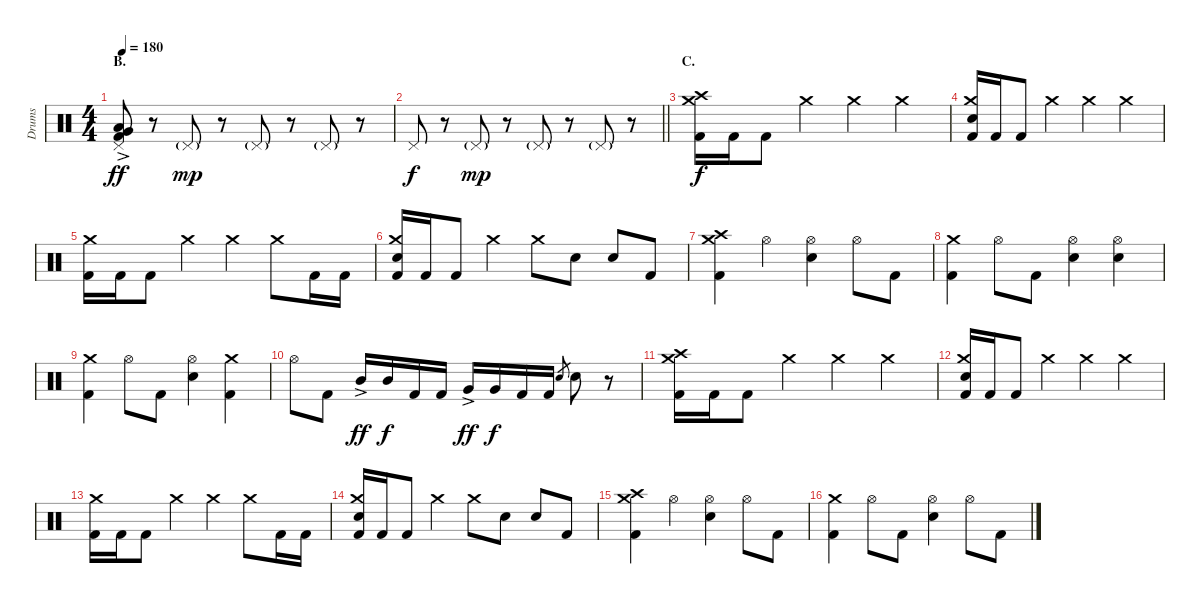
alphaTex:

\track ("Drums" "Drums") {instrument percussion}
\staff {score}
\articulation defaults
\ts (4 4)
\section ("" "B.")
\tempo 180
\clef neutral
\ks c
("Pedal Hi-Hat (hit)" "Very Low Tom (hit)"{ac} "Low Floor Tom (hit)"{ac} "Kick (hit) 2").8{dy ff} r.8 "Pedal Hi-Hat (hit)"{g}.8{dy mp} r.8 "Pedal Hi-Hat (hit)"{g}.8 r.8 "Pedal Hi-Hat (hit)"{g}.8 r.8 |
\barLineRight lightlight "Pedal Hi-Hat (hit)".8{dy f}
r.8 "Pedal Hi-Hat (hit)"{g}.8{dy mp} r.8 "Pedal Hi-Hat (hit)"{g}.8 r.8 "Pedal Hi-Hat (hit)"{g}.8 r.8 |
\section ("" "C.")
("Crash medium (hit)" "Crash high (hit)" "Kick (hit) 2").16{dy f} "Kick (hit) 2".16 "Kick (hit) 2".8 "Crash medium (hit)".4 "Crash medium (hit)".4 "Crash medium (hit)".4 |
("Crash medium (hit)" "Electric Snare (hit)" "Kick (hit) 2").16 "Kick (hit) 2".16 "Kick (hit) 2".8 "Crash medium (hit)".4 "Crash medium (hit)".4 "Crash medium (hit)".4 |
("Crash medium (hit)" "Kick (hit) 2").16 "Kick (hit) 2".16 "Kick (hit) 2".8 "Crash medium (hit)".4 "Crash medium (hit)".4 "Crash medium (hit)".8 "Kick (hit) 2".16 "Kick (hit) 2".16 |
("Crash medium (hit)" "Electric Snare (hit)" "Kick (hit) 2").16 "Kick (hit) 2".16 "Kick (hit) 2".8 "Crash medium (hit)".4 "Crash medium (hit)".8 "Electric Snare (hit)".8 "Electric Snare (hit)".8 "Kick (hit) 2".8 |
("Crash medium (hit)" "Crash high (hit)" "Kick (hit) 2").4 "Hi-Hat (open)".4 ("Hi-Hat (open)" "Electric Snare (hit)").4 "Hi-Hat (open)".8 "Kick (hit) 2".8 |
("Crash medium (hit)" "Kick (hit) 2").4 "Hi-Hat (open)".8 "Kick (hit) 2".8 ("Hi-Hat (open)" "Electric Snare (hit)").4 ("Hi-Hat (open)" "Electric Snare (hit)").4 |
("Crash medium (hit)" "Kick (hit) 2").4 "Hi-Hat (open)".8 "Kick (hit) 2".8 ("Hi-Hat (open)" "Electric Snare (hit)").4 ("Crash medium (hit)" "Kick (hit) 2").4 |
"Hi-Hat (open)".8 "Kick (hit) 2".8 "Mid Tom (hit)"{ac}.16{dy ff} "Mid Tom (hit)".16{dy f} "Kick (hit) 2".16 "Kick (hit) 2".16 "Very Low Tom (hit)"{ac}.16{dy ff} "Very Low Tom (hit)".16{dy f} "Kick (hit) 2".16 "Kick (hit) 2".16 "Electric Snare (hit)".8{gr} "Electric Snare (hit)".8 r.8 |
("Crash medium (hit)" "Crash high (hit)" "Kick (hit) 2").16 "Kick (hit) 2".16 "Kick (hit) 2".8 "Crash medium (hit)".4 "Crash medium (hit)".4 "Crash medium (hit)".4 |
("Crash medium (hit)" "Electric Snare (hit)" "Kick (hit) 2").16 "Kick (hit) 2".16 "Kick (hit) 2".8 "Crash medium (hit)".4 "Crash medium (hit)".4 "Crash medium (hit)".4 |
("Crash medium (hit)" "Kick (hit) 2").16 "Kick (hit) 2".16 "Kick (hit) 2".8 "Crash medium (hit)".4 "Crash medium (hit)".4 "Crash medium (hit)".8 "Kick (hit) 2".16 "Kick (hit) 2".16 |
("Crash medium (hit)" "Electric Snare (hit)" "Kick (hit) 2").16 "Kick (hit) 2".16 "Kick (hit) 2".8 "Crash medium (hit)".4 "Crash medium (hit)".8 "Electric Snare (hit)".8 "Electric Snare (hit)".8 "Kick (hit) 2".8 |
("Crash medium (hit)" "Crash high (hit)" "Kick (hit) 2").4 "Hi-Hat (open)".4 ("Hi-Hat (open)" "Electric Snare (hit)").4 "Hi-Hat (open)".8 "Kick (hit) 2".8 |
("Crash medium (hit)" "Kick (hit) 2").4 "Hi-Hat (open)".8 "Kick (hit) 2".8 ("Hi-Hat (open)" "Electric Snare (hit)").4 "Hi-Hat (open)".8 "Kick (hit) 2".8
